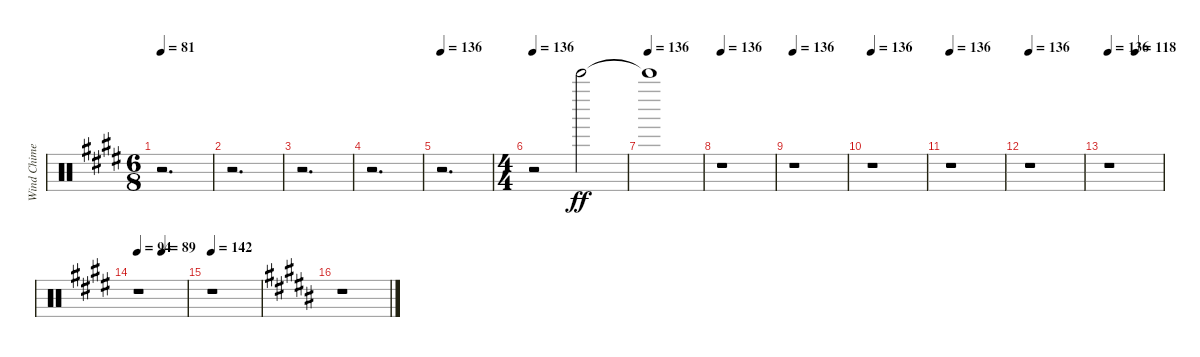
\track ("Wind Chimes" "Wind Chime") {instrument percussion}
\staff {score}
\articulation defaults
\ts (6 8)
\tempo 81
\clef neutral
\ks c#minor
r.2{d dy ff} |
r.2{d} |
r.2{d} |
r.2{d} |
\tempo 136
r.2{d} |
\ts (4 4)
\tempo 136
r.2 "Bell Tree (hit)".2 |
\tempo (136)
"Bell Tree (hit)"{t}.1 |
\tempo 136
r.1 |
\tempo 136
r.1 |
\tempo 136
r.1 |
\tempo 136
r.1 |
\tempo 136
r.1 |
\tempo 136
\tempo (118 0.5)
r.1 |
\tempo 94
\tempo (89 0.5)
r.1 |
\tempo 142
r.1 |
\ks g#minor
r.1
